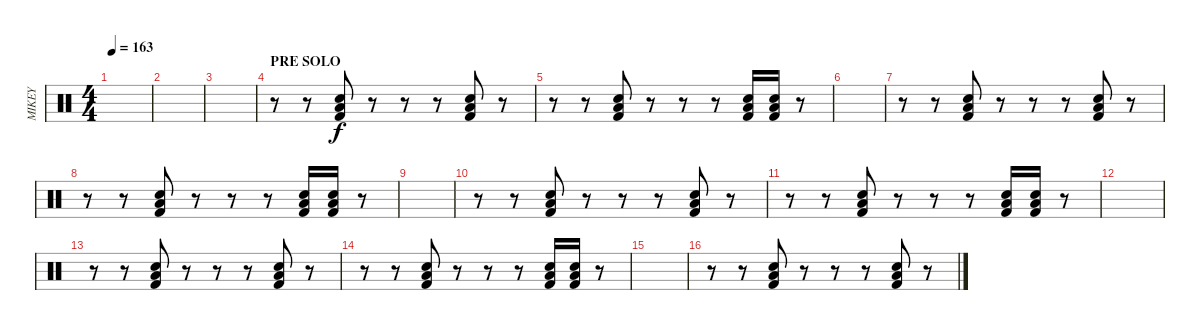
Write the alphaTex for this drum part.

\track ("MIKEY" "MIKEY") {instrument percussion}
\staff {score}
\articulation defaults
\ts (4 4)
\tempo 163
\clef neutral
\ks c
|
|
|
\section ("" "PRE SOLO")
r.8 r.8 ("Kick (hit) 2" "Low Floor Tom (hit)" "Electric Snare (hit)").8 r.8 r.8 r.8 ("Kick (hit) 2" "Low Floor Tom (hit)" "Electric Snare (hit)").8 r.8 |
r.8 r.8 ("Kick (hit) 2" "Low Floor Tom (hit)" "Electric Snare (hit)").8 r.8 r.8 r.8 ("Kick (hit) 2" "Low Floor Tom (hit)" "Electric Snare (hit)").16 ("Kick (hit) 2" "Low Floor Tom (hit)" "Electric Snare (hit)").16 r.8 |
|
r.8 r.8 ("Kick (hit) 2" "Low Floor Tom (hit)" "Electric Snare (hit)").8 r.8 r.8 r.8 ("Kick (hit) 2" "Low Floor Tom (hit)" "Electric Snare (hit)").8 r.8 |
r.8 r.8 ("Kick (hit) 2" "Low Floor Tom (hit)" "Electric Snare (hit)").8 r.8 r.8 r.8 ("Kick (hit) 2" "Low Floor Tom (hit)" "Electric Snare (hit)").16 ("Kick (hit) 2" "Low Floor Tom (hit)" "Electric Snare (hit)").16 r.8 |
|
r.8 r.8 ("Kick (hit) 2" "Low Floor Tom (hit)" "Electric Snare (hit)").8 r.8 r.8 r.8 ("Kick (hit) 2" "Low Floor Tom (hit)" "Electric Snare (hit)").8 r.8 |
r.8 r.8 ("Kick (hit) 2" "Low Floor Tom (hit)" "Electric Snare (hit)").8 r.8 r.8 r.8 ("Kick (hit) 2" "Low Floor Tom (hit)" "Electric Snare (hit)").16 ("Kick (hit) 2" "Low Floor Tom (hit)" "Electric Snare (hit)").16 r.8 |
|
r.8 r.8 ("Kick (hit) 2" "Low Floor Tom (hit)" "Electric Snare (hit)").8 r.8 r.8 r.8 ("Kick (hit) 2" "Low Floor Tom (hit)" "Electric Snare (hit)").8 r.8 |
r.8 r.8 ("Kick (hit) 2" "Low Floor Tom (hit)" "Electric Snare (hit)").8 r.8 r.8 r.8 ("Kick (hit) 2" "Low Floor Tom (hit)" "Electric Snare (hit)").16 ("Kick (hit) 2" "Low Floor Tom (hit)" "Electric Snare (hit)").16 r.8 |
|
r.8 r.8 ("Kick (hit) 2" "Low Floor Tom (hit)" "Electric Snare (hit)").8 r.8 r.8 r.8 ("Kick (hit) 2" "Low Floor Tom (hit)" "Electric Snare (hit)").8 r.8
